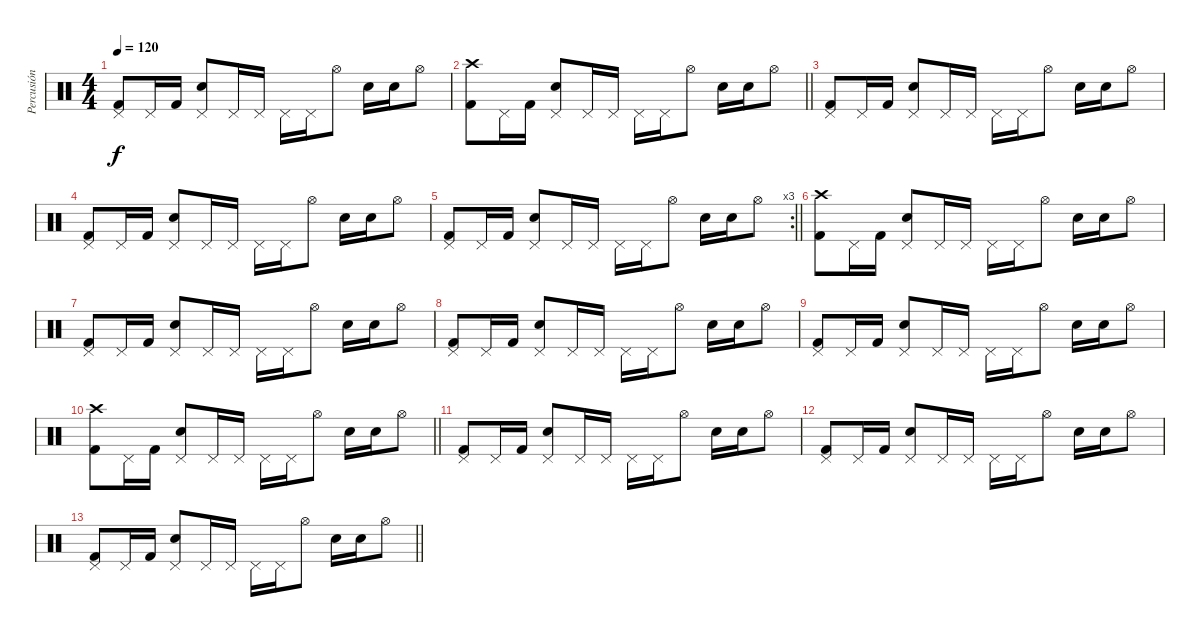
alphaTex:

\track ("Percusión" "Percusión") {instrument percussion}
\staff {score}
\articulation defaults
\ts (4 4)
\tempo 120
\clef neutral
\ks c
("Pedal Hi-Hat (hit)" "Kick (hit) 2").8{dy f} "Pedal Hi-Hat (hit)".16 "Kick (hit) 2".16 ("Pedal Hi-Hat (hit)" "Snare (hit) 2").8 "Pedal Hi-Hat (hit)".16 "Pedal Hi-Hat (hit)".16 "Pedal Hi-Hat (hit)".16 "Pedal Hi-Hat (hit)".16 "Hi-Hat (open)".8 "Snare (hit) 2".16 "Snare (hit) 2".16 "Hi-Hat (open)".8 |
\barLineRight lightlight
("Crash high (hit)" "Kick (hit) 2").8 "Pedal Hi-Hat (hit)".16 "Kick (hit) 2".16 ("Pedal Hi-Hat (hit)" "Snare (hit) 2").8 "Pedal Hi-Hat (hit)".16 "Pedal Hi-Hat (hit)".16 "Pedal Hi-Hat (hit)".16 "Pedal Hi-Hat (hit)".16 "Hi-Hat (open)".8 "Snare (hit) 2".16 "Snare (hit) 2".16 "Hi-Hat (open)".8 |
("Pedal Hi-Hat (hit)" "Kick (hit) 2").8 "Pedal Hi-Hat (hit)".16 "Kick (hit) 2".16 ("Pedal Hi-Hat (hit)" "Snare (hit) 2").8 "Pedal Hi-Hat (hit)".16 "Pedal Hi-Hat (hit)".16 "Pedal Hi-Hat (hit)".16 "Pedal Hi-Hat (hit)".16 "Hi-Hat (open)".8 "Snare (hit) 2".16 "Snare (hit) 2".16 "Hi-Hat (open)".8 |
("Pedal Hi-Hat (hit)" "Kick (hit) 2").8 "Pedal Hi-Hat (hit)".16 "Kick (hit) 2".16 ("Pedal Hi-Hat (hit)" "Snare (hit) 2").8 "Pedal Hi-Hat (hit)".16 "Pedal Hi-Hat (hit)".16 "Pedal Hi-Hat (hit)".16 "Pedal Hi-Hat (hit)".16 "Hi-Hat (open)".8 "Snare (hit) 2".16 "Snare (hit) 2".16 "Hi-Hat (open)".8 |
\rc 3
\barLineRight lightlight
("Pedal Hi-Hat (hit)" "Kick (hit) 2").8 "Pedal Hi-Hat (hit)".16 "Kick (hit) 2".16 ("Pedal Hi-Hat (hit)" "Snare (hit) 2").8 "Pedal Hi-Hat (hit)".16 "Pedal Hi-Hat (hit)".16 "Pedal Hi-Hat (hit)".16 "Pedal Hi-Hat (hit)".16 "Hi-Hat (open)".8 "Snare (hit) 2".16 "Snare (hit) 2".16 "Hi-Hat (open)".8 |
("Crash high (hit)" "Kick (hit) 2").8 "Pedal Hi-Hat (hit)".16 "Kick (hit) 2".16 ("Pedal Hi-Hat (hit)" "Snare (hit) 2").8 "Pedal Hi-Hat (hit)".16 "Pedal Hi-Hat (hit)".16 "Pedal Hi-Hat (hit)".16 "Pedal Hi-Hat (hit)".16 "Hi-Hat (open)".8 "Snare (hit) 2".16 "Snare (hit) 2".16 "Hi-Hat (open)".8 |
("Pedal Hi-Hat (hit)" "Kick (hit) 2").8 "Pedal Hi-Hat (hit)".16 "Kick (hit) 2".16 ("Pedal Hi-Hat (hit)" "Snare (hit) 2").8 "Pedal Hi-Hat (hit)".16 "Pedal Hi-Hat (hit)".16 "Pedal Hi-Hat (hit)".16 "Pedal Hi-Hat (hit)".16 "Hi-Hat (open)".8 "Snare (hit) 2".16 "Snare (hit) 2".16 "Hi-Hat (open)".8 |
("Pedal Hi-Hat (hit)" "Kick (hit) 2").8 "Pedal Hi-Hat (hit)".16 "Kick (hit) 2".16 ("Pedal Hi-Hat (hit)" "Snare (hit) 2").8 "Pedal Hi-Hat (hit)".16 "Pedal Hi-Hat (hit)".16 "Pedal Hi-Hat (hit)".16 "Pedal Hi-Hat (hit)".16 "Hi-Hat (open)".8 "Snare (hit) 2".16 "Snare (hit) 2".16 "Hi-Hat (open)".8 |
("Pedal Hi-Hat (hit)" "Kick (hit) 2").8 "Pedal Hi-Hat (hit)".16 "Kick (hit) 2".16 ("Pedal Hi-Hat (hit)" "Snare (hit) 2").8 "Pedal Hi-Hat (hit)".16 "Pedal Hi-Hat (hit)".16 "Pedal Hi-Hat (hit)".16 "Pedal Hi-Hat (hit)".16 "Hi-Hat (open)".8 "Snare (hit) 2".16 "Snare (hit) 2".16 "Hi-Hat (open)".8 |
\barLineRight lightlight
("Crash high (hit)" "Kick (hit) 2").8 "Pedal Hi-Hat (hit)".16 "Kick (hit) 2".16 ("Pedal Hi-Hat (hit)" "Snare (hit) 2").8 "Pedal Hi-Hat (hit)".16 "Pedal Hi-Hat (hit)".16 "Pedal Hi-Hat (hit)".16 "Pedal Hi-Hat (hit)".16 "Hi-Hat (open)".8 "Snare (hit) 2".16 "Snare (hit) 2".16 "Hi-Hat (open)".8 |
("Pedal Hi-Hat (hit)" "Kick (hit) 2").8 "Pedal Hi-Hat (hit)".16 "Kick (hit) 2".16 ("Pedal Hi-Hat (hit)" "Snare (hit) 2").8 "Pedal Hi-Hat (hit)".16 "Pedal Hi-Hat (hit)".16 "Pedal Hi-Hat (hit)".16 "Pedal Hi-Hat (hit)".16 "Hi-Hat (open)".8 "Snare (hit) 2".16 "Snare (hit) 2".16 "Hi-Hat (open)".8 |
("Pedal Hi-Hat (hit)" "Kick (hit) 2").8 "Pedal Hi-Hat (hit)".16 "Kick (hit) 2".16 ("Pedal Hi-Hat (hit)" "Snare (hit) 2").8 "Pedal Hi-Hat (hit)".16 "Pedal Hi-Hat (hit)".16 "Pedal Hi-Hat (hit)".16 "Pedal Hi-Hat (hit)".16 "Hi-Hat (open)".8 "Snare (hit) 2".16 "Snare (hit) 2".16 "Hi-Hat (open)".8 |
\barLineRight lightlight
("Pedal Hi-Hat (hit)" "Kick (hit) 2").8 "Pedal Hi-Hat (hit)".16 "Kick (hit) 2".16 ("Pedal Hi-Hat (hit)" "Snare (hit) 2").8 "Pedal Hi-Hat (hit)".16 "Pedal Hi-Hat (hit)".16 "Pedal Hi-Hat (hit)".16 "Pedal Hi-Hat (hit)".16 "Hi-Hat (open)".8 "Snare (hit) 2".16 "Snare (hit) 2".16 "Hi-Hat (open)".8
